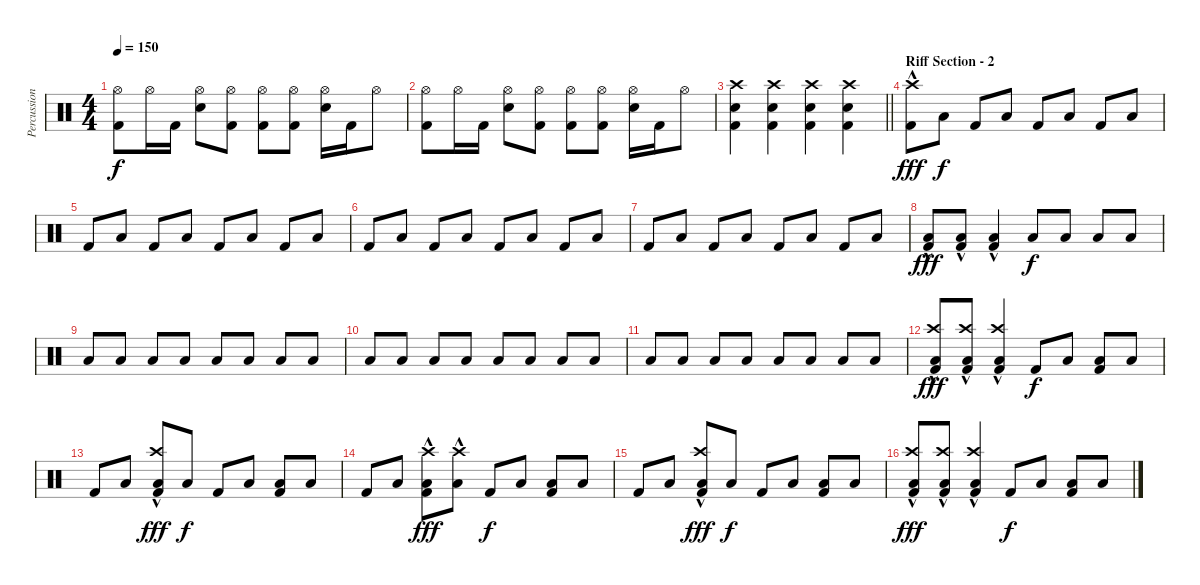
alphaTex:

\track ("Percussion" "Percussion") {instrument percussion}
\staff {score}
\articulation defaults
\ts (4 4)
\tempo 150
\clef neutral
\ks c
("Hi-Hat (open)" "Kick (hit) 2").8{dy f} "Hi-Hat (open)".16 "Kick (hit) 2".16 ("Hi-Hat (open)" "Snare (hit) 2").8 ("Hi-Hat (open)" "Kick (hit) 2").8 ("Hi-Hat (open)" "Kick (hit) 2").8 ("Hi-Hat (open)" "Kick (hit) 2").8 ("Hi-Hat (open)" "Snare (hit) 2").16 "Kick (hit) 2".16 "Hi-Hat (open)".8 |
("Hi-Hat (open)" "Kick (hit) 2").8 "Hi-Hat (open)".16 "Kick (hit) 2".16 ("Hi-Hat (open)" "Snare (hit) 2").8 ("Hi-Hat (open)" "Kick (hit) 2").8 ("Hi-Hat (open)" "Kick (hit) 2").8 ("Hi-Hat (open)" "Kick (hit) 2").8 ("Hi-Hat (open)" "Snare (hit) 2").16 "Kick (hit) 2".16 "Hi-Hat (open)".8 |
\barLineRight lightlight
("Crash high (hit)" "Snare (hit) 2" "Kick (hit) 2").4 ("Crash high (hit)" "Snare (hit) 2" "Kick (hit) 2").4 ("Crash high (hit)" "Snare (hit) 2" "Kick (hit) 2").4 ("Crash high (hit)" "Snare (hit) 2" "Kick (hit) 2").4 |
\section ("" "Riff Section - 2")
("Crash high (hit)"{hac} "Kick (hit) 2").8{dy fff} "Low Floor Tom (hit)".8{dy f} "Kick (hit) 2".8 "Low Floor Tom (hit)".8 "Kick (hit) 2".8 "Low Floor Tom (hit)".8 "Kick (hit) 2".8 "Low Floor Tom (hit)".8 |
"Kick (hit) 2".8 "Low Floor Tom (hit)".8 "Kick (hit) 2".8 "Low Floor Tom (hit)".8 "Kick (hit) 2".8 "Low Floor Tom (hit)".8 "Kick (hit) 2".8 "Low Floor Tom (hit)".8 |
"Kick (hit) 2".8 "Low Floor Tom (hit)".8 "Kick (hit) 2".8 "Low Floor Tom (hit)".8 "Kick (hit) 2".8 "Low Floor Tom (hit)".8 "Kick (hit) 2".8 "Low Floor Tom (hit)".8 |
"Kick (hit) 2".8 "Low Floor Tom (hit)".8 "Kick (hit) 2".8 "Low Floor Tom (hit)".8 "Kick (hit) 2".8 "Low Floor Tom (hit)".8 "Kick (hit) 2".8 "Low Floor Tom (hit)".8 |
("Low Floor Tom (hit)"{hac} "Kick (hit) 2"{hac}).8{dy fff} ("Low Floor Tom (hit)"{hac} "Kick (hit) 2"{hac}).8 ("Low Floor Tom (hit)"{hac} "Kick (hit) 2"{hac}).4 "Low Tom (hit)".8{dy f} "Low Floor Tom (hit)".8 "Low Tom (hit)".8 "Low Floor Tom (hit)".8 |
"Low Tom (hit)".8 "Low Floor Tom (hit)".8 "Low Tom (hit)".8 "Low Floor Tom (hit)".8 "Low Tom (hit)".8 "Low Floor Tom (hit)".8 "Low Tom (hit)".8 "Low Floor Tom (hit)".8 |
"Low Tom (hit)".8 "Low Floor Tom (hit)".8 "Low Tom (hit)".8 "Low Floor Tom (hit)".8 "Low Tom (hit)".8 "Low Floor Tom (hit)".8 "Low Tom (hit)".8 "Low Floor Tom (hit)".8 |
"Low Tom (hit)".8 "Low Floor Tom (hit)".8 "Low Tom (hit)".8 "Low Floor Tom (hit)".8 "Low Tom (hit)".8 "Low Floor Tom (hit)".8 "Low Tom (hit)".8 "Low Floor Tom (hit)".8 |
("Crash high (hit)"{hac} "Low Floor Tom (hit)"{hac} "Kick (hit) 2"{hac}).8{dy fff} ("Crash high (hit)"{hac} "Low Floor Tom (hit)"{hac} "Kick (hit) 2"{hac}).8 ("Crash high (hit)"{hac} "Low Floor Tom (hit)"{hac} "Kick (hit) 2"{hac}).4 "Kick (hit) 2".8{dy f} "Low Floor Tom (hit)".8 ("Low Tom (hit)" "Kick (hit) 2").8 "Low Floor Tom (hit)".8 |
"Kick (hit) 2".8 "Low Floor Tom (hit)".8 ("Crash high (hit)"{hac} "Low Tom (hit)" "Kick (hit) 2").8{dy fff} "Low Floor Tom (hit)".8{dy f} "Kick (hit) 2".8 "Low Floor Tom (hit)".8 ("Low Tom (hit)" "Kick (hit) 2").8 "Low Floor Tom (hit)".8 |
"Kick (hit) 2".8 "Low Floor Tom (hit)".8 ("Crash high (hit)"{hac} "Low Tom (hit)" "Kick (hit) 2").8{dy fff} ("Crash high (hit)"{hac} "Low Floor Tom (hit)").8 "Kick (hit) 2".8{dy f} "Low Floor Tom (hit)".8 ("Low Tom (hit)" "Kick (hit) 2").8 "Low Floor Tom (hit)".8 |
"Kick (hit) 2".8 "Low Floor Tom (hit)".8 ("Crash high (hit)"{hac} "Low Tom (hit)" "Kick (hit) 2").8{dy fff} "Low Floor Tom (hit)".8{dy f} "Kick (hit) 2".8 "Low Floor Tom (hit)".8 ("Low Tom (hit)" "Kick (hit) 2").8 "Low Floor Tom (hit)".8 |
("Crash high (hit)"{hac} "Low Floor Tom (hit)"{hac} "Kick (hit) 2"{hac}).8{dy fff} ("Crash high (hit)"{hac} "Low Floor Tom (hit)"{hac} "Kick (hit) 2"{hac}).8 ("Crash high (hit)"{hac} "Low Floor Tom (hit)"{hac} "Kick (hit) 2"{hac}).4 "Kick (hit) 2".8{dy f} "Low Floor Tom (hit)".8 ("Low Tom (hit)" "Kick (hit) 2").8 "Low Floor Tom (hit)".8
